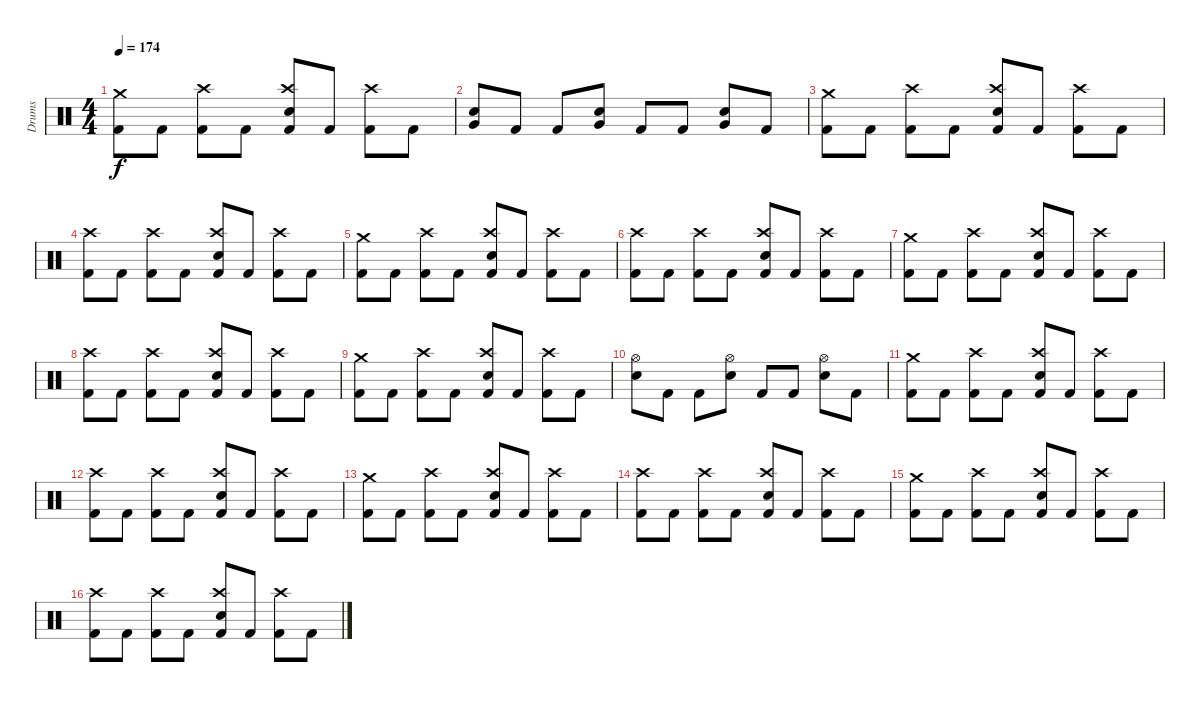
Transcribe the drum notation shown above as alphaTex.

\track ("Drums" "Drums") {instrument percussion}
\staff {score}
\articulation defaults
\ts (4 4)
\tempo 174
\clef neutral
\ks c
("Crash medium (hit)" "Kick (hit) 2").8{dy f} "Kick (hit) 2".8 ("Crash high (hit)" "Kick (hit) 2").8 "Kick (hit) 2".8 ("Crash high (hit)" "Electric Snare (hit)" "Kick (hit) 2").8 "Kick (hit) 2".8 ("Crash high (hit)" "Kick (hit) 2").8 "Kick (hit) 2".8 |
("Electric Snare (hit)" "Very Low Tom (hit)").8 "Kick (hit) 2".8 "Kick (hit) 2".8 ("Electric Snare (hit)" "Very Low Tom (hit)").8 "Kick (hit) 2".8 "Kick (hit) 2".8 ("Electric Snare (hit)" "Very Low Tom (hit)").8 "Kick (hit) 2".8 |
("Crash medium (hit)" "Kick (hit) 2").8 "Kick (hit) 2".8 ("Crash high (hit)" "Kick (hit) 2").8 "Kick (hit) 2".8 ("Crash high (hit)" "Electric Snare (hit)" "Kick (hit) 2").8 "Kick (hit) 2".8 ("Crash high (hit)" "Kick (hit) 2").8 "Kick (hit) 2".8 |
("Crash high (hit)" "Kick (hit) 2").8 "Kick (hit) 2".8 ("Crash high (hit)" "Kick (hit) 2").8 "Kick (hit) 2".8 ("Crash high (hit)" "Electric Snare (hit)" "Kick (hit) 2").8 "Kick (hit) 2".8 ("Crash high (hit)" "Kick (hit) 2").8 "Kick (hit) 2".8 |
("Crash medium (hit)" "Kick (hit) 2").8 "Kick (hit) 2".8 ("Crash high (hit)" "Kick (hit) 2").8 "Kick (hit) 2".8 ("Crash high (hit)" "Electric Snare (hit)" "Kick (hit) 2").8 "Kick (hit) 2".8 ("Crash high (hit)" "Kick (hit) 2").8 "Kick (hit) 2".8 |
("Crash high (hit)" "Kick (hit) 2").8 "Kick (hit) 2".8 ("Crash high (hit)" "Kick (hit) 2").8 "Kick (hit) 2".8 ("Crash high (hit)" "Electric Snare (hit)" "Kick (hit) 2").8 "Kick (hit) 2".8 ("Crash high (hit)" "Kick (hit) 2").8 "Kick (hit) 2".8 |
("Crash medium (hit)" "Kick (hit) 2").8 "Kick (hit) 2".8 ("Crash high (hit)" "Kick (hit) 2").8 "Kick (hit) 2".8 ("Crash high (hit)" "Electric Snare (hit)" "Kick (hit) 2").8 "Kick (hit) 2".8 ("Crash high (hit)" "Kick (hit) 2").8 "Kick (hit) 2".8 |
("Crash high (hit)" "Kick (hit) 2").8 "Kick (hit) 2".8 ("Crash high (hit)" "Kick (hit) 2").8 "Kick (hit) 2".8 ("Crash high (hit)" "Electric Snare (hit)" "Kick (hit) 2").8 "Kick (hit) 2".8 ("Crash high (hit)" "Kick (hit) 2").8 "Kick (hit) 2".8 |
("Crash medium (hit)" "Kick (hit) 2").8 "Kick (hit) 2".8 ("Crash high (hit)" "Kick (hit) 2").8 "Kick (hit) 2".8 ("Crash high (hit)" "Electric Snare (hit)" "Kick (hit) 2").8 "Kick (hit) 2".8 ("Crash high (hit)" "Kick (hit) 2").8 "Kick (hit) 2".8 |
("Hi-Hat (open)" "Electric Snare (hit)").8 "Kick (hit) 2".8 "Kick (hit) 2".8 ("Hi-Hat (open)" "Electric Snare (hit)").8 "Kick (hit) 2".8 "Kick (hit) 2".8 ("Hi-Hat (open)" "Electric Snare (hit)").8 "Kick (hit) 2".8 |
("Crash medium (hit)" "Kick (hit) 2").8 "Kick (hit) 2".8 ("Crash high (hit)" "Kick (hit) 2").8 "Kick (hit) 2".8 ("Crash high (hit)" "Electric Snare (hit)" "Kick (hit) 2").8 "Kick (hit) 2".8 ("Crash high (hit)" "Kick (hit) 2").8 "Kick (hit) 2".8 |
("Crash high (hit)" "Kick (hit) 2").8 "Kick (hit) 2".8 ("Crash high (hit)" "Kick (hit) 2").8 "Kick (hit) 2".8 ("Crash high (hit)" "Electric Snare (hit)" "Kick (hit) 2").8 "Kick (hit) 2".8 ("Crash high (hit)" "Kick (hit) 2").8 "Kick (hit) 2".8 |
("Crash medium (hit)" "Kick (hit) 2").8 "Kick (hit) 2".8 ("Crash high (hit)" "Kick (hit) 2").8 "Kick (hit) 2".8 ("Crash high (hit)" "Electric Snare (hit)" "Kick (hit) 2").8 "Kick (hit) 2".8 ("Crash high (hit)" "Kick (hit) 2").8 "Kick (hit) 2".8 |
("Crash high (hit)" "Kick (hit) 2").8 "Kick (hit) 2".8 ("Crash high (hit)" "Kick (hit) 2").8 "Kick (hit) 2".8 ("Crash high (hit)" "Electric Snare (hit)" "Kick (hit) 2").8 "Kick (hit) 2".8 ("Crash high (hit)" "Kick (hit) 2").8 "Kick (hit) 2".8 |
("Crash medium (hit)" "Kick (hit) 2").8 "Kick (hit) 2".8 ("Crash high (hit)" "Kick (hit) 2").8 "Kick (hit) 2".8 ("Crash high (hit)" "Electric Snare (hit)" "Kick (hit) 2").8 "Kick (hit) 2".8 ("Crash high (hit)" "Kick (hit) 2").8 "Kick (hit) 2".8 |
("Crash high (hit)" "Kick (hit) 2").8 "Kick (hit) 2".8 ("Crash high (hit)" "Kick (hit) 2").8 "Kick (hit) 2".8 ("Crash high (hit)" "Electric Snare (hit)" "Kick (hit) 2").8 "Kick (hit) 2".8 ("Crash high (hit)" "Kick (hit) 2").8 "Kick (hit) 2".8
